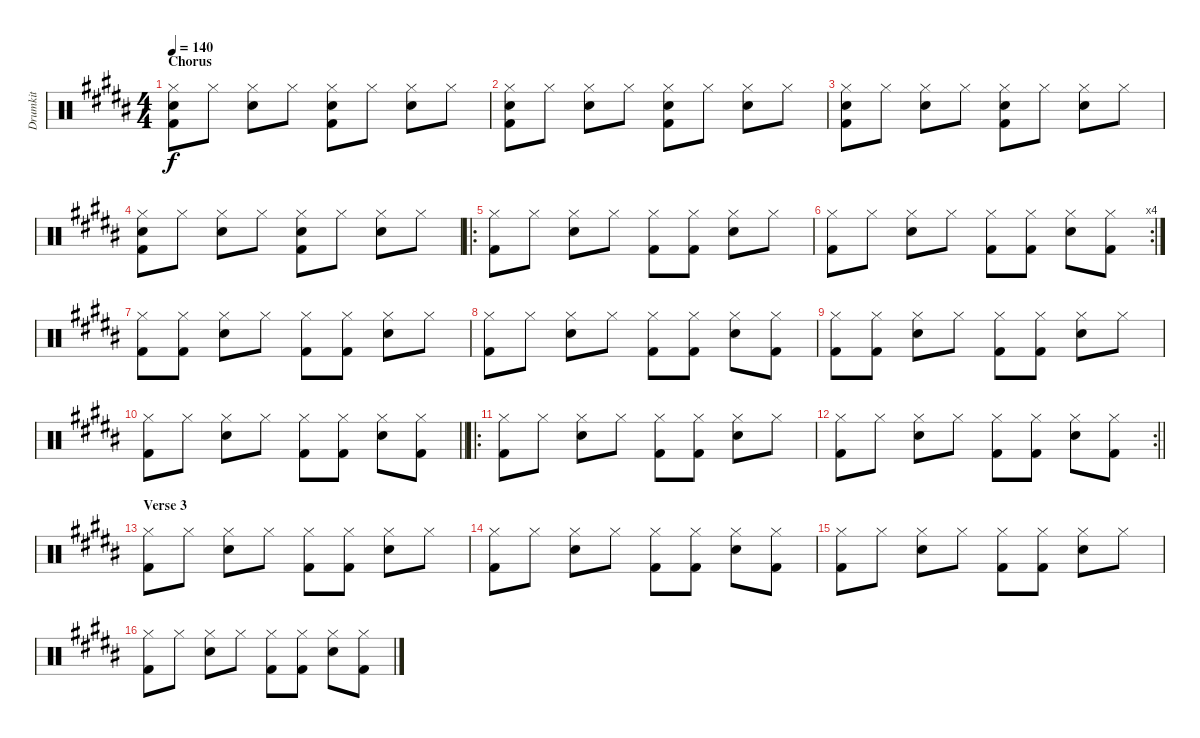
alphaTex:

\track ("Drumkit" "Drumkit") {instrument percussion}
\staff {score}
\articulation defaults
\ts (4 4)
\section ("" "Chorus")
\tempo 140
\clef neutral
\ks b
("Hi-Hat (closed)" "Snare (hit) 2" "Kick (hit) 2").8{dy f} "Hi-Hat (closed)".8 ("Hi-Hat (closed)" "Snare (hit) 2").8 "Hi-Hat (closed)".8 ("Hi-Hat (closed)" "Snare (hit) 2" "Kick (hit) 2").8 "Hi-Hat (closed)".8 ("Hi-Hat (closed)" "Snare (hit) 2").8 "Hi-Hat (closed)".8 |
("Hi-Hat (closed)" "Snare (hit) 2" "Kick (hit) 2").8 "Hi-Hat (closed)".8 ("Hi-Hat (closed)" "Snare (hit) 2").8 "Hi-Hat (closed)".8 ("Hi-Hat (closed)" "Snare (hit) 2" "Kick (hit) 2").8 "Hi-Hat (closed)".8 ("Hi-Hat (closed)" "Snare (hit) 2").8 "Hi-Hat (closed)".8 |
("Hi-Hat (closed)" "Snare (hit) 2" "Kick (hit) 2").8 "Hi-Hat (closed)".8 ("Hi-Hat (closed)" "Snare (hit) 2").8 "Hi-Hat (closed)".8 ("Hi-Hat (closed)" "Snare (hit) 2" "Kick (hit) 2").8 "Hi-Hat (closed)".8 ("Hi-Hat (closed)" "Snare (hit) 2").8 "Hi-Hat (closed)".8 |
("Hi-Hat (closed)" "Snare (hit) 2" "Kick (hit) 2").8 "Hi-Hat (closed)".8 ("Hi-Hat (closed)" "Snare (hit) 2").8 "Hi-Hat (closed)".8 ("Hi-Hat (closed)" "Snare (hit) 2" "Kick (hit) 2").8 "Hi-Hat (closed)".8 ("Hi-Hat (closed)" "Snare (hit) 2").8 "Hi-Hat (closed)".8 |
\ro
("Hi-Hat (closed)" "Kick (hit) 2").8 "Hi-Hat (closed)".8 ("Hi-Hat (closed)" "Snare (hit) 2").8 "Hi-Hat (closed)".8 ("Hi-Hat (closed)" "Kick (hit) 2").8 ("Hi-Hat (closed)" "Kick (hit) 2").8 ("Hi-Hat (closed)" "Snare (hit) 2").8 "Hi-Hat (closed)".8 |
\rc 4
("Hi-Hat (closed)" "Kick (hit) 2").8 "Hi-Hat (closed)".8 ("Hi-Hat (closed)" "Snare (hit) 2").8 "Hi-Hat (closed)".8 ("Hi-Hat (closed)" "Kick (hit) 2").8 ("Hi-Hat (closed)" "Kick (hit) 2").8 ("Hi-Hat (closed)" "Snare (hit) 2").8 ("Hi-Hat (closed)" "Kick (hit) 2").8 |
("Hi-Hat (closed)" "Kick (hit) 2").8 ("Hi-Hat (closed)" "Kick (hit) 2").8 ("Hi-Hat (closed)" "Snare (hit) 2").8 "Hi-Hat (closed)".8 ("Hi-Hat (closed)" "Kick (hit) 2").8 ("Hi-Hat (closed)" "Kick (hit) 2").8 ("Hi-Hat (closed)" "Snare (hit) 2").8 "Hi-Hat (closed)".8 |
("Hi-Hat (closed)" "Kick (hit) 2").8 "Hi-Hat (closed)".8 ("Hi-Hat (closed)" "Snare (hit) 2").8 "Hi-Hat (closed)".8 ("Hi-Hat (closed)" "Kick (hit) 2").8 ("Hi-Hat (closed)" "Kick (hit) 2").8 ("Hi-Hat (closed)" "Snare (hit) 2").8 ("Hi-Hat (closed)" "Kick (hit) 2").8 |
("Hi-Hat (closed)" "Kick (hit) 2").8 ("Hi-Hat (closed)" "Kick (hit) 2").8 ("Hi-Hat (closed)" "Snare (hit) 2").8 "Hi-Hat (closed)".8 ("Hi-Hat (closed)" "Kick (hit) 2").8 ("Hi-Hat (closed)" "Kick (hit) 2").8 ("Hi-Hat (closed)" "Snare (hit) 2").8 "Hi-Hat (closed)".8 |
\barLineRight lightlight
("Hi-Hat (closed)" "Kick (hit) 2").8 "Hi-Hat (closed)".8 ("Hi-Hat (closed)" "Snare (hit) 2").8 "Hi-Hat (closed)".8 ("Hi-Hat (closed)" "Kick (hit) 2").8 ("Hi-Hat (closed)" "Kick (hit) 2").8 ("Hi-Hat (closed)" "Snare (hit) 2").8 ("Hi-Hat (closed)" "Kick (hit) 2").8 |
\ro
("Hi-Hat (closed)" "Kick (hit) 2").8 "Hi-Hat (closed)".8 ("Hi-Hat (closed)" "Snare (hit) 2").8 "Hi-Hat (closed)".8 ("Hi-Hat (closed)" "Kick (hit) 2").8 ("Hi-Hat (closed)" "Kick (hit) 2").8 ("Hi-Hat (closed)" "Snare (hit) 2").8 "Hi-Hat (closed)".8 |
\rc 2
\barLineRight lightlight
("Hi-Hat (closed)" "Kick (hit) 2").8 "Hi-Hat (closed)".8 ("Hi-Hat (closed)" "Snare (hit) 2").8 "Hi-Hat (closed)".8 ("Hi-Hat (closed)" "Kick (hit) 2").8 ("Hi-Hat (closed)" "Kick (hit) 2").8 ("Hi-Hat (closed)" "Snare (hit) 2").8 ("Hi-Hat (closed)" "Kick (hit) 2").8 |
\section ("" "Verse 3")
("Hi-Hat (closed)" "Kick (hit) 2").8 "Hi-Hat (closed)".8 ("Hi-Hat (closed)" "Snare (hit) 2").8 "Hi-Hat (closed)".8 ("Hi-Hat (closed)" "Kick (hit) 2").8 ("Hi-Hat (closed)" "Kick (hit) 2").8 ("Hi-Hat (closed)" "Snare (hit) 2").8 "Hi-Hat (closed)".8 |
("Hi-Hat (closed)" "Kick (hit) 2").8 "Hi-Hat (closed)".8 ("Hi-Hat (closed)" "Snare (hit) 2").8 "Hi-Hat (closed)".8 ("Hi-Hat (closed)" "Kick (hit) 2").8 ("Hi-Hat (closed)" "Kick (hit) 2").8 ("Hi-Hat (closed)" "Snare (hit) 2").8 ("Hi-Hat (closed)" "Kick (hit) 2").8 |
("Hi-Hat (closed)" "Kick (hit) 2").8 "Hi-Hat (closed)".8 ("Hi-Hat (closed)" "Snare (hit) 2").8 "Hi-Hat (closed)".8 ("Hi-Hat (closed)" "Kick (hit) 2").8 ("Hi-Hat (closed)" "Kick (hit) 2").8 ("Hi-Hat (closed)" "Snare (hit) 2").8 "Hi-Hat (closed)".8 |
("Hi-Hat (closed)" "Kick (hit) 2").8 "Hi-Hat (closed)".8 ("Hi-Hat (closed)" "Snare (hit) 2").8 "Hi-Hat (closed)".8 ("Hi-Hat (closed)" "Kick (hit) 2").8 ("Hi-Hat (closed)" "Kick (hit) 2").8 ("Hi-Hat (closed)" "Snare (hit) 2").8 ("Hi-Hat (closed)" "Kick (hit) 2").8
